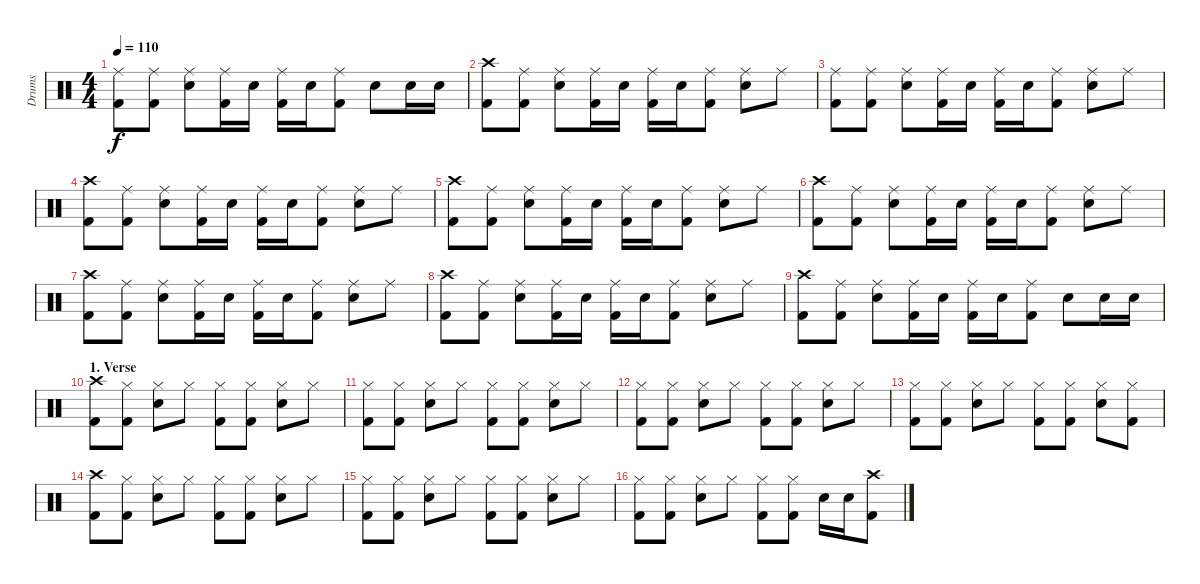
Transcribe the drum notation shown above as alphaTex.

\track ("Drums" "Drums") {instrument percussion}
\staff {score}
\articulation defaults
\ts (4 4)
\tempo 110
\clef neutral
\ks c
("Ride (middle)" "Kick (hit) 2").8{dy f} ("Ride (middle)" "Kick (hit) 2").8 ("Ride (middle)" "Electric Snare (hit)").8 ("Ride (middle)" "Kick (hit) 2").16 "Electric Snare (hit)".16 ("Ride (middle)" "Kick (hit) 2").16 "Electric Snare (hit)".16 ("Ride (middle)" "Kick (hit) 2").8 "Electric Snare (hit)".8 "Electric Snare (hit)".16 "Electric Snare (hit)".16 |
("Crash high (hit)" "Kick (hit) 2").8 ("Ride (middle)" "Kick (hit) 2").8 ("Ride (middle)" "Electric Snare (hit)").8 ("Ride (middle)" "Kick (hit) 2").16 "Electric Snare (hit)".16 ("Ride (middle)" "Kick (hit) 2").16 "Electric Snare (hit)".16 ("Ride (middle)" "Kick (hit) 2").8 ("Ride (middle)" "Electric Snare (hit)").8 "Ride (middle)".8 |
("Ride (middle)" "Kick (hit) 2").8 ("Ride (middle)" "Kick (hit) 2").8 ("Ride (middle)" "Electric Snare (hit)").8 ("Ride (middle)" "Kick (hit) 2").16 "Electric Snare (hit)".16 ("Ride (middle)" "Kick (hit) 2").16 "Electric Snare (hit)".16 ("Ride (middle)" "Kick (hit) 2").8 ("Ride (middle)" "Electric Snare (hit)").8 "Ride (middle)".8 |
("Crash high (hit)" "Kick (hit) 2").8 ("Ride (middle)" "Kick (hit) 2").8 ("Ride (middle)" "Electric Snare (hit)").8 ("Ride (middle)" "Kick (hit) 2").16 "Electric Snare (hit)".16 ("Ride (middle)" "Kick (hit) 2").16 "Electric Snare (hit)".16 ("Ride (middle)" "Kick (hit) 2").8 ("Ride (middle)" "Electric Snare (hit)").8 "Ride (middle)".8 |
("Crash high (hit)" "Kick (hit) 2").8 ("Ride (middle)" "Kick (hit) 2").8 ("Ride (middle)" "Electric Snare (hit)").8 ("Ride (middle)" "Kick (hit) 2").16 "Electric Snare (hit)".16 ("Ride (middle)" "Kick (hit) 2").16 "Electric Snare (hit)".16 ("Ride (middle)" "Kick (hit) 2").8 ("Ride (middle)" "Electric Snare (hit)").8 "Ride (middle)".8 |
("Crash high (hit)" "Kick (hit) 2").8 ("Ride (middle)" "Kick (hit) 2").8 ("Ride (middle)" "Electric Snare (hit)").8 ("Ride (middle)" "Kick (hit) 2").16 "Electric Snare (hit)".16 ("Ride (middle)" "Kick (hit) 2").16 "Electric Snare (hit)".16 ("Ride (middle)" "Kick (hit) 2").8 ("Ride (middle)" "Electric Snare (hit)").8 "Ride (middle)".8 |
("Crash high (hit)" "Kick (hit) 2").8 ("Ride (middle)" "Kick (hit) 2").8 ("Ride (middle)" "Electric Snare (hit)").8 ("Ride (middle)" "Kick (hit) 2").16 "Electric Snare (hit)".16 ("Ride (middle)" "Kick (hit) 2").16 "Electric Snare (hit)".16 ("Ride (middle)" "Kick (hit) 2").8 ("Ride (middle)" "Electric Snare (hit)").8 "Ride (middle)".8 |
("Crash high (hit)" "Kick (hit) 2").8 ("Ride (middle)" "Kick (hit) 2").8 ("Ride (middle)" "Electric Snare (hit)").8 ("Ride (middle)" "Kick (hit) 2").16 "Electric Snare (hit)".16 ("Ride (middle)" "Kick (hit) 2").16 "Electric Snare (hit)".16 ("Ride (middle)" "Kick (hit) 2").8 ("Ride (middle)" "Electric Snare (hit)").8 "Ride (middle)".8 |
("Crash high (hit)" "Kick (hit) 2").8 ("Ride (middle)" "Kick (hit) 2").8 ("Ride (middle)" "Electric Snare (hit)").8 ("Ride (middle)" "Kick (hit) 2").16 "Electric Snare (hit)".16 ("Ride (middle)" "Kick (hit) 2").16 "Electric Snare (hit)".16 ("Ride (middle)" "Kick (hit) 2").8 "Electric Snare (hit)".8 "Electric Snare (hit)".16 "Electric Snare (hit)".16 |
\section ("" "1. Verse")
("Crash high (hit)" "Kick (hit) 2").8 ("Hi-Hat (closed)" "Kick (hit) 2").8 ("Hi-Hat (closed)" "Electric Snare (hit)").8 "Hi-Hat (closed)".8 ("Hi-Hat (closed)" "Kick (hit) 2").8 ("Hi-Hat (closed)" "Kick (hit) 2").8 ("Hi-Hat (closed)" "Electric Snare (hit)").8 "Hi-Hat (closed)".8 |
("Hi-Hat (closed)" "Kick (hit) 2").8 ("Hi-Hat (closed)" "Kick (hit) 2").8 ("Hi-Hat (closed)" "Electric Snare (hit)").8 "Hi-Hat (closed)".8 ("Hi-Hat (closed)" "Kick (hit) 2").8 ("Hi-Hat (closed)" "Kick (hit) 2").8 ("Hi-Hat (closed)" "Electric Snare (hit)").8 "Hi-Hat (closed)".8 |
("Hi-Hat (closed)" "Kick (hit) 2").8 ("Hi-Hat (closed)" "Kick (hit) 2").8 ("Hi-Hat (closed)" "Electric Snare (hit)").8 "Hi-Hat (closed)".8 ("Hi-Hat (closed)" "Kick (hit) 2").8 ("Hi-Hat (closed)" "Kick (hit) 2").8 ("Hi-Hat (closed)" "Electric Snare (hit)").8 "Hi-Hat (closed)".8 |
("Hi-Hat (closed)" "Kick (hit) 2").8 ("Hi-Hat (closed)" "Kick (hit) 2").8 ("Hi-Hat (closed)" "Electric Snare (hit)").8 "Hi-Hat (closed)".8 ("Hi-Hat (closed)" "Kick (hit) 2").8 ("Hi-Hat (closed)" "Kick (hit) 2").8 ("Hi-Hat (closed)" "Electric Snare (hit)").8 ("Hi-Hat (closed)" "Kick (hit) 2").8 |
("Crash high (hit)" "Kick (hit) 2").8 ("Hi-Hat (closed)" "Kick (hit) 2").8 ("Hi-Hat (closed)" "Electric Snare (hit)").8 "Hi-Hat (closed)".8 ("Hi-Hat (closed)" "Kick (hit) 2").8 ("Hi-Hat (closed)" "Kick (hit) 2").8 ("Hi-Hat (closed)" "Electric Snare (hit)").8 "Hi-Hat (closed)".8 |
("Hi-Hat (closed)" "Kick (hit) 2").8 ("Hi-Hat (closed)" "Kick (hit) 2").8 ("Hi-Hat (closed)" "Electric Snare (hit)").8 "Hi-Hat (closed)".8 ("Hi-Hat (closed)" "Kick (hit) 2").8 ("Hi-Hat (closed)" "Kick (hit) 2").8 ("Hi-Hat (closed)" "Electric Snare (hit)").8 "Hi-Hat (closed)".8 |
("Hi-Hat (closed)" "Kick (hit) 2").8 ("Hi-Hat (closed)" "Kick (hit) 2").8 ("Hi-Hat (closed)" "Electric Snare (hit)").8 "Hi-Hat (closed)".8 ("Hi-Hat (closed)" "Kick (hit) 2").8 ("Hi-Hat (closed)" "Kick (hit) 2").8 "Electric Snare (hit)".16 "Electric Snare (hit)".16 ("Crash high (hit)" "Kick (hit) 2").8
